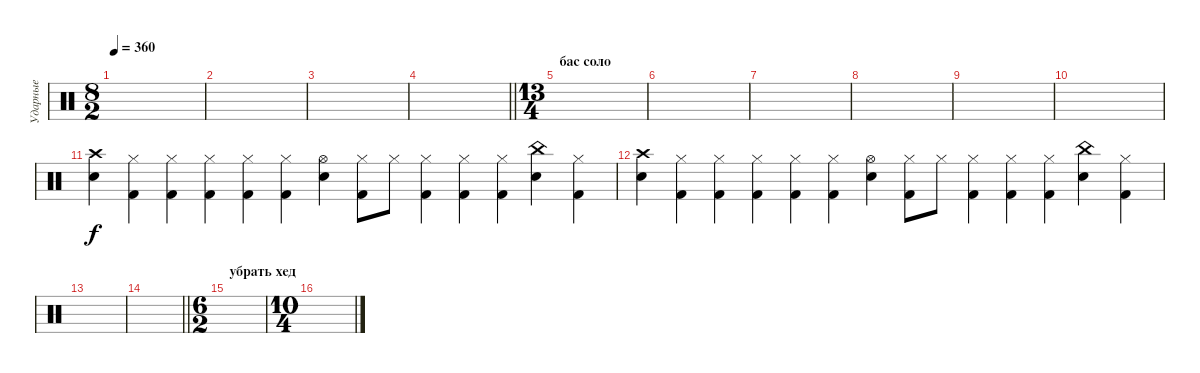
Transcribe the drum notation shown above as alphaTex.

\track ("Ударные" "Ударные") {mute instrument percussion}
\staff {score}
\articulation defaults
\ts (8 2)
\tempo 360
\clef neutral
\ks c
|
|
|
\barLineRight lightlight
|
\ts (13 4)
\section ("" "бас соло")
|
|
|
|
|
|
("Crash high (hit)" "Snare (hit) 2").4 ("Hi-Hat (closed)" "Kick (hit) 2").4 ("Hi-Hat (closed)" "Kick (hit) 2").4 ("Hi-Hat (closed)" "Kick (hit) 2").4 ("Hi-Hat (closed)" "Kick (hit) 2").4 ("Hi-Hat (closed)" "Kick (hit) 2").4 ("Hi-Hat (open)" "Snare (hit) 2").4 ("Hi-Hat (closed)" "Kick (hit) 2").8 "Hi-Hat (closed)".8 ("Hi-Hat (closed)" "Kick (hit) 2").4 ("Hi-Hat (closed)" "Kick (hit) 2").4 ("Hi-Hat (closed)" "Kick (hit) 2").4 ("China (hit)" "Snare (hit) 2").4 ("Hi-Hat (closed)" "Kick (hit) 2").4 |
("Crash high (hit)" "Snare (hit) 2").4 ("Hi-Hat (closed)" "Kick (hit) 2").4 ("Hi-Hat (closed)" "Kick (hit) 2").4 ("Hi-Hat (closed)" "Kick (hit) 2").4 ("Hi-Hat (closed)" "Kick (hit) 2").4 ("Hi-Hat (closed)" "Kick (hit) 2").4 ("Hi-Hat (open)" "Snare (hit) 2").4 ("Hi-Hat (closed)" "Kick (hit) 2").8 "Hi-Hat (closed)".8 ("Hi-Hat (closed)" "Kick (hit) 2").4 ("Hi-Hat (closed)" "Kick (hit) 2").4 ("Hi-Hat (closed)" "Kick (hit) 2").4 ("China (hit)" "Snare (hit) 2").4 ("Hi-Hat (closed)" "Kick (hit) 2").4 |
|
\barLineRight lightlight
|
\ts (6 2)
\section ("" "убрать хед")
|
\ts (10 4)
